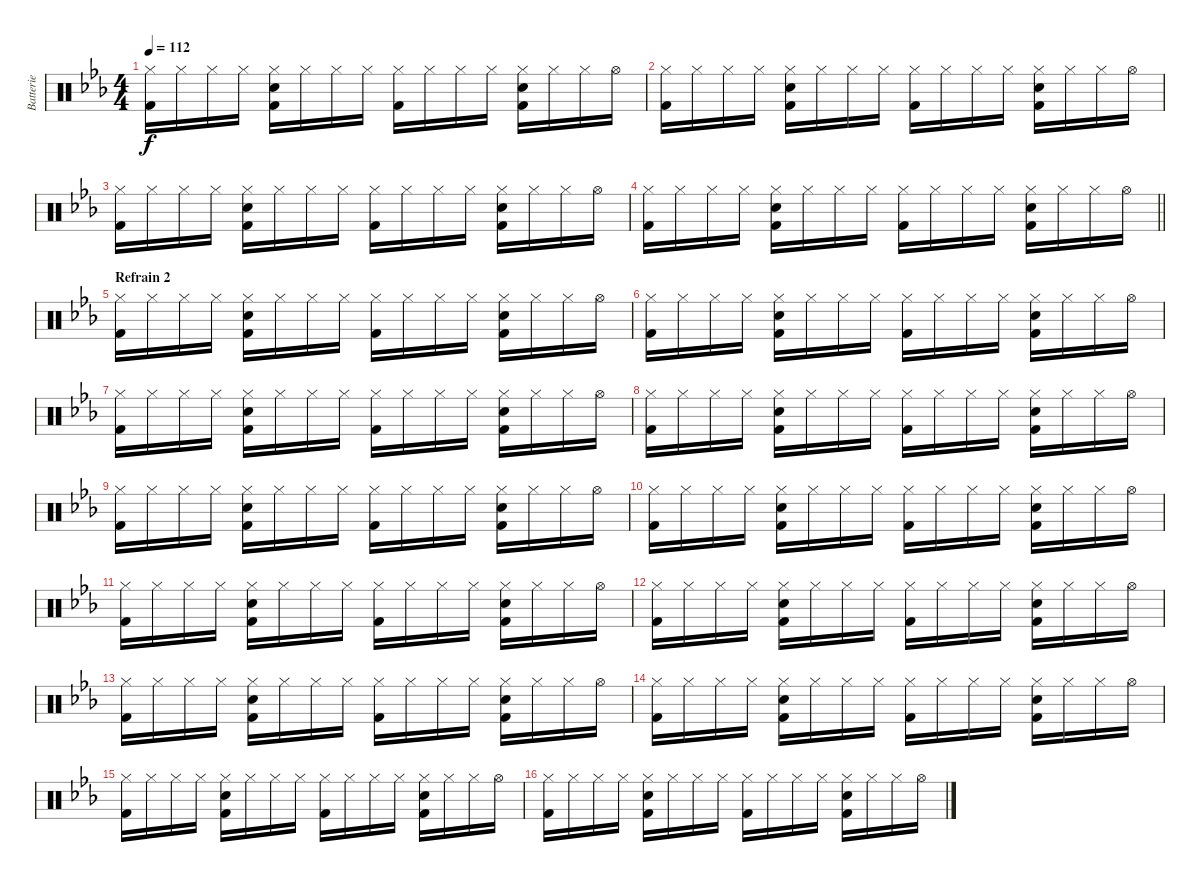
\track ("Batterie" "Batterie") {instrument percussion}
\staff {score}
\articulation defaults
\ts (4 4)
\tempo 112
\clef neutral
\ks cminor
("Hi-Hat (closed)" "Kick (hit) 2").16{dy f} "Hi-Hat (closed)".16 "Hi-Hat (closed)".16 "Hi-Hat (closed)".16 ("Hi-Hat (closed)" "Electric Snare (hit)" "Kick (hit) 2").16 "Hi-Hat (closed)".16 "Hi-Hat (closed)".16 "Hi-Hat (closed)".16 ("Hi-Hat (closed)" "Kick (hit) 2").16 "Hi-Hat (closed)".16 "Hi-Hat (closed)".16 "Hi-Hat (closed)".16 ("Hi-Hat (closed)" "Electric Snare (hit)" "Kick (hit) 2").16 "Hi-Hat (closed)".16 "Hi-Hat (closed)".16 "Hi-Hat (open)".16 |
("Hi-Hat (closed)" "Kick (hit) 2").16 "Hi-Hat (closed)".16 "Hi-Hat (closed)".16 "Hi-Hat (closed)".16 ("Hi-Hat (closed)" "Electric Snare (hit)" "Kick (hit) 2").16 "Hi-Hat (closed)".16 "Hi-Hat (closed)".16 "Hi-Hat (closed)".16 ("Hi-Hat (closed)" "Kick (hit) 2").16 "Hi-Hat (closed)".16 "Hi-Hat (closed)".16 "Hi-Hat (closed)".16 ("Hi-Hat (closed)" "Electric Snare (hit)" "Kick (hit) 2").16 "Hi-Hat (closed)".16 "Hi-Hat (closed)".16 "Hi-Hat (open)".16 |
("Hi-Hat (closed)" "Kick (hit) 2").16 "Hi-Hat (closed)".16 "Hi-Hat (closed)".16 "Hi-Hat (closed)".16 ("Hi-Hat (closed)" "Electric Snare (hit)" "Kick (hit) 2").16 "Hi-Hat (closed)".16 "Hi-Hat (closed)".16 "Hi-Hat (closed)".16 ("Hi-Hat (closed)" "Kick (hit) 2").16 "Hi-Hat (closed)".16 "Hi-Hat (closed)".16 "Hi-Hat (closed)".16 ("Hi-Hat (closed)" "Electric Snare (hit)" "Kick (hit) 2").16 "Hi-Hat (closed)".16 "Hi-Hat (closed)".16 "Hi-Hat (open)".16 |
\barLineRight lightlight
("Hi-Hat (closed)" "Kick (hit) 2").16 "Hi-Hat (closed)".16 "Hi-Hat (closed)".16 "Hi-Hat (closed)".16 ("Hi-Hat (closed)" "Electric Snare (hit)" "Kick (hit) 2").16 "Hi-Hat (closed)".16 "Hi-Hat (closed)".16 "Hi-Hat (closed)".16 ("Hi-Hat (closed)" "Kick (hit) 2").16 "Hi-Hat (closed)".16 "Hi-Hat (closed)".16 "Hi-Hat (closed)".16 ("Hi-Hat (closed)" "Electric Snare (hit)" "Kick (hit) 2").16 "Hi-Hat (closed)".16 "Hi-Hat (closed)".16 "Hi-Hat (open)".16 |
\section ("" "Refrain 2")
("Hi-Hat (closed)" "Kick (hit) 2").16 "Hi-Hat (closed)".16 "Hi-Hat (closed)".16 "Hi-Hat (closed)".16 ("Hi-Hat (closed)" "Electric Snare (hit)" "Kick (hit) 2").16 "Hi-Hat (closed)".16 "Hi-Hat (closed)".16 "Hi-Hat (closed)".16 ("Hi-Hat (closed)" "Kick (hit) 2").16 "Hi-Hat (closed)".16 "Hi-Hat (closed)".16 "Hi-Hat (closed)".16 ("Hi-Hat (closed)" "Electric Snare (hit)" "Kick (hit) 2").16 "Hi-Hat (closed)".16 "Hi-Hat (closed)".16 "Hi-Hat (open)".16 |
("Hi-Hat (closed)" "Kick (hit) 2").16 "Hi-Hat (closed)".16 "Hi-Hat (closed)".16 "Hi-Hat (closed)".16 ("Hi-Hat (closed)" "Electric Snare (hit)" "Kick (hit) 2").16 "Hi-Hat (closed)".16 "Hi-Hat (closed)".16 "Hi-Hat (closed)".16 ("Hi-Hat (closed)" "Kick (hit) 2").16 "Hi-Hat (closed)".16 "Hi-Hat (closed)".16 "Hi-Hat (closed)".16 ("Hi-Hat (closed)" "Electric Snare (hit)" "Kick (hit) 2").16 "Hi-Hat (closed)".16 "Hi-Hat (closed)".16 "Hi-Hat (open)".16 |
("Hi-Hat (closed)" "Kick (hit) 2").16 "Hi-Hat (closed)".16 "Hi-Hat (closed)".16 "Hi-Hat (closed)".16 ("Hi-Hat (closed)" "Electric Snare (hit)" "Kick (hit) 2").16 "Hi-Hat (closed)".16 "Hi-Hat (closed)".16 "Hi-Hat (closed)".16 ("Hi-Hat (closed)" "Kick (hit) 2").16 "Hi-Hat (closed)".16 "Hi-Hat (closed)".16 "Hi-Hat (closed)".16 ("Hi-Hat (closed)" "Electric Snare (hit)" "Kick (hit) 2").16 "Hi-Hat (closed)".16 "Hi-Hat (closed)".16 "Hi-Hat (open)".16 |
("Hi-Hat (closed)" "Kick (hit) 2").16 "Hi-Hat (closed)".16 "Hi-Hat (closed)".16 "Hi-Hat (closed)".16 ("Hi-Hat (closed)" "Electric Snare (hit)" "Kick (hit) 2").16 "Hi-Hat (closed)".16 "Hi-Hat (closed)".16 "Hi-Hat (closed)".16 ("Hi-Hat (closed)" "Kick (hit) 2").16 "Hi-Hat (closed)".16 "Hi-Hat (closed)".16 "Hi-Hat (closed)".16 ("Hi-Hat (closed)" "Electric Snare (hit)" "Kick (hit) 2").16 "Hi-Hat (closed)".16 "Hi-Hat (closed)".16 "Hi-Hat (open)".16 |
("Hi-Hat (closed)" "Kick (hit) 2").16 "Hi-Hat (closed)".16 "Hi-Hat (closed)".16 "Hi-Hat (closed)".16 ("Hi-Hat (closed)" "Electric Snare (hit)" "Kick (hit) 2").16 "Hi-Hat (closed)".16 "Hi-Hat (closed)".16 "Hi-Hat (closed)".16 ("Hi-Hat (closed)" "Kick (hit) 2").16 "Hi-Hat (closed)".16 "Hi-Hat (closed)".16 "Hi-Hat (closed)".16 ("Hi-Hat (closed)" "Electric Snare (hit)" "Kick (hit) 2").16 "Hi-Hat (closed)".16 "Hi-Hat (closed)".16 "Hi-Hat (open)".16 |
("Hi-Hat (closed)" "Kick (hit) 2").16 "Hi-Hat (closed)".16 "Hi-Hat (closed)".16 "Hi-Hat (closed)".16 ("Hi-Hat (closed)" "Electric Snare (hit)" "Kick (hit) 2").16 "Hi-Hat (closed)".16 "Hi-Hat (closed)".16 "Hi-Hat (closed)".16 ("Hi-Hat (closed)" "Kick (hit) 2").16 "Hi-Hat (closed)".16 "Hi-Hat (closed)".16 "Hi-Hat (closed)".16 ("Hi-Hat (closed)" "Electric Snare (hit)" "Kick (hit) 2").16 "Hi-Hat (closed)".16 "Hi-Hat (closed)".16 "Hi-Hat (open)".16 |
("Hi-Hat (closed)" "Kick (hit) 2").16 "Hi-Hat (closed)".16 "Hi-Hat (closed)".16 "Hi-Hat (closed)".16 ("Hi-Hat (closed)" "Electric Snare (hit)" "Kick (hit) 2").16 "Hi-Hat (closed)".16 "Hi-Hat (closed)".16 "Hi-Hat (closed)".16 ("Hi-Hat (closed)" "Kick (hit) 2").16 "Hi-Hat (closed)".16 "Hi-Hat (closed)".16 "Hi-Hat (closed)".16 ("Hi-Hat (closed)" "Electric Snare (hit)" "Kick (hit) 2").16 "Hi-Hat (closed)".16 "Hi-Hat (closed)".16 "Hi-Hat (open)".16 |
("Hi-Hat (closed)" "Kick (hit) 2").16 "Hi-Hat (closed)".16 "Hi-Hat (closed)".16 "Hi-Hat (closed)".16 ("Hi-Hat (closed)" "Electric Snare (hit)" "Kick (hit) 2").16 "Hi-Hat (closed)".16 "Hi-Hat (closed)".16 "Hi-Hat (closed)".16 ("Hi-Hat (closed)" "Kick (hit) 2").16 "Hi-Hat (closed)".16 "Hi-Hat (closed)".16 "Hi-Hat (closed)".16 ("Hi-Hat (closed)" "Electric Snare (hit)" "Kick (hit) 2").16 "Hi-Hat (closed)".16 "Hi-Hat (closed)".16 "Hi-Hat (open)".16 |
("Hi-Hat (closed)" "Kick (hit) 2").16 "Hi-Hat (closed)".16 "Hi-Hat (closed)".16 "Hi-Hat (closed)".16 ("Hi-Hat (closed)" "Electric Snare (hit)" "Kick (hit) 2").16 "Hi-Hat (closed)".16 "Hi-Hat (closed)".16 "Hi-Hat (closed)".16 ("Hi-Hat (closed)" "Kick (hit) 2").16 "Hi-Hat (closed)".16 "Hi-Hat (closed)".16 "Hi-Hat (closed)".16 ("Hi-Hat (closed)" "Electric Snare (hit)" "Kick (hit) 2").16 "Hi-Hat (closed)".16 "Hi-Hat (closed)".16 "Hi-Hat (open)".16 |
("Hi-Hat (closed)" "Kick (hit) 2").16 "Hi-Hat (closed)".16 "Hi-Hat (closed)".16 "Hi-Hat (closed)".16 ("Hi-Hat (closed)" "Electric Snare (hit)" "Kick (hit) 2").16 "Hi-Hat (closed)".16 "Hi-Hat (closed)".16 "Hi-Hat (closed)".16 ("Hi-Hat (closed)" "Kick (hit) 2").16 "Hi-Hat (closed)".16 "Hi-Hat (closed)".16 "Hi-Hat (closed)".16 ("Hi-Hat (closed)" "Electric Snare (hit)" "Kick (hit) 2").16 "Hi-Hat (closed)".16 "Hi-Hat (closed)".16 "Hi-Hat (open)".16 |
("Hi-Hat (closed)" "Kick (hit) 2").16 "Hi-Hat (closed)".16 "Hi-Hat (closed)".16 "Hi-Hat (closed)".16 ("Hi-Hat (closed)" "Electric Snare (hit)" "Kick (hit) 2").16 "Hi-Hat (closed)".16 "Hi-Hat (closed)".16 "Hi-Hat (closed)".16 ("Hi-Hat (closed)" "Kick (hit) 2").16 "Hi-Hat (closed)".16 "Hi-Hat (closed)".16 "Hi-Hat (closed)".16 ("Hi-Hat (closed)" "Electric Snare (hit)" "Kick (hit) 2").16 "Hi-Hat (closed)".16 "Hi-Hat (closed)".16 "Hi-Hat (open)".16 |
("Hi-Hat (closed)" "Kick (hit) 2").16 "Hi-Hat (closed)".16 "Hi-Hat (closed)".16 "Hi-Hat (closed)".16 ("Hi-Hat (closed)" "Electric Snare (hit)" "Kick (hit) 2").16 "Hi-Hat (closed)".16 "Hi-Hat (closed)".16 "Hi-Hat (closed)".16 ("Hi-Hat (closed)" "Kick (hit) 2").16 "Hi-Hat (closed)".16 "Hi-Hat (closed)".16 "Hi-Hat (closed)".16 ("Hi-Hat (closed)" "Electric Snare (hit)" "Kick (hit) 2").16 "Hi-Hat (closed)".16 "Hi-Hat (closed)".16 "Hi-Hat (open)".16
